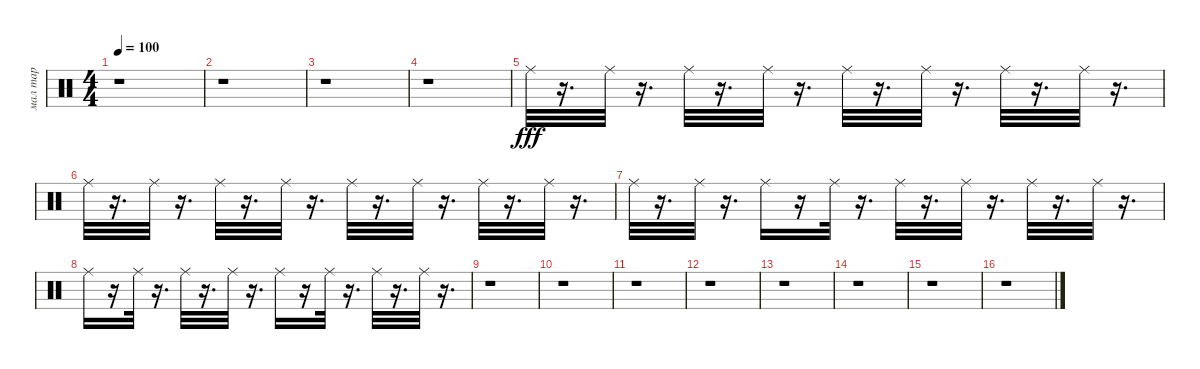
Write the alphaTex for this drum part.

\track ("мал тар" "мал тар") {instrument percussion}
\staff {score}
\articulation defaults
\ts (4 4)
\tempo 100
\clef neutral
\ks c
r.1{dy fff} |
r.1 |
r.1 |
r.1 |
"Ride (middle)".32 r.16{d} "Ride (middle)".32 r.16{d} "Ride (middle)".32 r.16{d} "Ride (middle)".32 r.16{d} "Ride (middle)".32 r.16{d} "Ride (middle)".32 r.16{d} "Ride (middle)".32 r.16{d} "Ride (middle)".32 r.16{d} |
"Ride (middle)".32 r.16{d} "Ride (middle)".32 r.16{d} "Ride (middle)".32 r.16{d} "Ride (middle)".32 r.16{d} "Ride (middle)".32 r.16{d} "Ride (middle)".32 r.16{d} "Ride (middle)".32 r.16{d} "Ride (middle)".32 r.16{d} |
"Ride (middle)".32 r.16{d} "Ride (middle)".32 r.16{d} "Ride (middle)".16 r.16 "Ride (middle)".32 r.16{d} "Ride (middle)".32 r.16{d} "Ride (middle)".32 r.16{d} "Ride (middle)".32 r.16{d} "Ride (middle)".32 r.16{d} |
"Ride (middle)".16 r.16 "Ride (middle)".32 r.16{d} "Ride (middle)".32 r.16{d} "Ride (middle)".32 r.16{d} "Ride (middle)".16 r.16 "Ride (middle)".32 r.16{d} "Ride (middle)".32 r.16{d} "Ride (middle)".32 r.16{d} |
r.1 |
r.1 |
r.1 |
r.1 |
r.1 |
r.1 |
r.1 |
r.1
